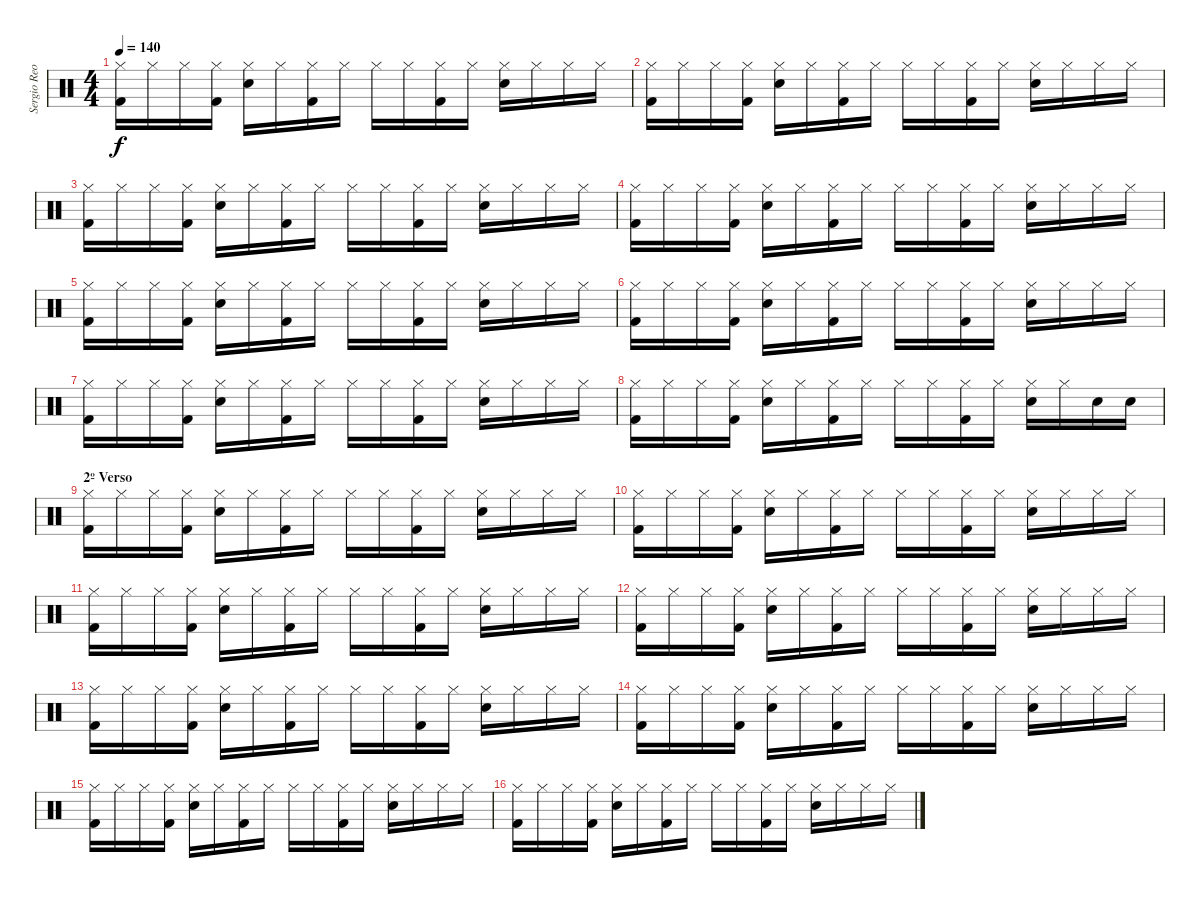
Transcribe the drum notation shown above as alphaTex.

\track ("Sergio Reoli" "Sergio Reo") {instrument percussion}
\staff {score}
\articulation defaults
\ts (4 4)
\tempo 140
\clef neutral
\ks c
("Hi-Hat (closed)" "Kick (hit) 2").16{dy f} "Hi-Hat (closed)".16 "Hi-Hat (closed)".16 ("Hi-Hat (closed)" "Kick (hit) 2").16 ("Hi-Hat (closed)" "Electric Snare (hit)").16 "Hi-Hat (closed)".16 ("Hi-Hat (closed)" "Kick (hit) 2").16 "Hi-Hat (closed)".16 "Hi-Hat (closed)".16 "Hi-Hat (closed)".16 ("Hi-Hat (closed)" "Kick (hit) 2").16 "Hi-Hat (closed)".16 ("Hi-Hat (closed)" "Electric Snare (hit)").16 "Hi-Hat (closed)".16 "Hi-Hat (closed)".16 "Hi-Hat (closed)".16 |
("Hi-Hat (closed)" "Kick (hit) 2").16 "Hi-Hat (closed)".16 "Hi-Hat (closed)".16 ("Hi-Hat (closed)" "Kick (hit) 2").16 ("Hi-Hat (closed)" "Electric Snare (hit)").16 "Hi-Hat (closed)".16 ("Hi-Hat (closed)" "Kick (hit) 2").16 "Hi-Hat (closed)".16 "Hi-Hat (closed)".16 "Hi-Hat (closed)".16 ("Hi-Hat (closed)" "Kick (hit) 2").16 "Hi-Hat (closed)".16 ("Hi-Hat (closed)" "Electric Snare (hit)").16 "Hi-Hat (closed)".16 "Hi-Hat (closed)".16 "Hi-Hat (closed)".16 |
("Hi-Hat (closed)" "Kick (hit) 2").16 "Hi-Hat (closed)".16 "Hi-Hat (closed)".16 ("Hi-Hat (closed)" "Kick (hit) 2").16 ("Hi-Hat (closed)" "Electric Snare (hit)").16 "Hi-Hat (closed)".16 ("Hi-Hat (closed)" "Kick (hit) 2").16 "Hi-Hat (closed)".16 "Hi-Hat (closed)".16 "Hi-Hat (closed)".16 ("Hi-Hat (closed)" "Kick (hit) 2").16 "Hi-Hat (closed)".16 ("Hi-Hat (closed)" "Electric Snare (hit)").16 "Hi-Hat (closed)".16 "Hi-Hat (closed)".16 "Hi-Hat (closed)".16 |
("Hi-Hat (closed)" "Kick (hit) 2").16 "Hi-Hat (closed)".16 "Hi-Hat (closed)".16 ("Hi-Hat (closed)" "Kick (hit) 2").16 ("Hi-Hat (closed)" "Electric Snare (hit)").16 "Hi-Hat (closed)".16 ("Hi-Hat (closed)" "Kick (hit) 2").16 "Hi-Hat (closed)".16 "Hi-Hat (closed)".16 "Hi-Hat (closed)".16 ("Hi-Hat (closed)" "Kick (hit) 2").16 "Hi-Hat (closed)".16 ("Hi-Hat (closed)" "Electric Snare (hit)").16 "Hi-Hat (closed)".16 "Hi-Hat (closed)".16 "Hi-Hat (closed)".16 |
("Hi-Hat (closed)" "Kick (hit) 2").16 "Hi-Hat (closed)".16 "Hi-Hat (closed)".16 ("Hi-Hat (closed)" "Kick (hit) 2").16 ("Hi-Hat (closed)" "Electric Snare (hit)").16 "Hi-Hat (closed)".16 ("Hi-Hat (closed)" "Kick (hit) 2").16 "Hi-Hat (closed)".16 "Hi-Hat (closed)".16 "Hi-Hat (closed)".16 ("Hi-Hat (closed)" "Kick (hit) 2").16 "Hi-Hat (closed)".16 ("Hi-Hat (closed)" "Electric Snare (hit)").16 "Hi-Hat (closed)".16 "Hi-Hat (closed)".16 "Hi-Hat (closed)".16 |
("Hi-Hat (closed)" "Kick (hit) 2").16 "Hi-Hat (closed)".16 "Hi-Hat (closed)".16 ("Hi-Hat (closed)" "Kick (hit) 2").16 ("Hi-Hat (closed)" "Electric Snare (hit)").16 "Hi-Hat (closed)".16 ("Hi-Hat (closed)" "Kick (hit) 2").16 "Hi-Hat (closed)".16 "Hi-Hat (closed)".16 "Hi-Hat (closed)".16 ("Hi-Hat (closed)" "Kick (hit) 2").16 "Hi-Hat (closed)".16 ("Hi-Hat (closed)" "Electric Snare (hit)").16 "Hi-Hat (closed)".16 "Hi-Hat (closed)".16 "Hi-Hat (closed)".16 |
("Hi-Hat (closed)" "Kick (hit) 2").16 "Hi-Hat (closed)".16 "Hi-Hat (closed)".16 ("Hi-Hat (closed)" "Kick (hit) 2").16 ("Hi-Hat (closed)" "Electric Snare (hit)").16 "Hi-Hat (closed)".16 ("Hi-Hat (closed)" "Kick (hit) 2").16 "Hi-Hat (closed)".16 "Hi-Hat (closed)".16 "Hi-Hat (closed)".16 ("Hi-Hat (closed)" "Kick (hit) 2").16 "Hi-Hat (closed)".16 ("Hi-Hat (closed)" "Electric Snare (hit)").16 "Hi-Hat (closed)".16 "Hi-Hat (closed)".16 "Hi-Hat (closed)".16 |
("Hi-Hat (closed)" "Kick (hit) 2").16 "Hi-Hat (closed)".16 "Hi-Hat (closed)".16 ("Hi-Hat (closed)" "Kick (hit) 2").16 ("Hi-Hat (closed)" "Electric Snare (hit)").16 "Hi-Hat (closed)".16 ("Hi-Hat (closed)" "Kick (hit) 2").16 "Hi-Hat (closed)".16 "Hi-Hat (closed)".16 "Hi-Hat (closed)".16 ("Hi-Hat (closed)" "Kick (hit) 2").16 "Hi-Hat (closed)".16 ("Hi-Hat (closed)" "Electric Snare (hit)").16 "Hi-Hat (closed)".16 "Electric Snare (hit)".16 "Electric Snare (hit)".16 |
\section ("" "2º Verso")
("Hi-Hat (closed)" "Kick (hit) 2").16 "Hi-Hat (closed)".16 "Hi-Hat (closed)".16 ("Hi-Hat (closed)" "Kick (hit) 2").16 ("Hi-Hat (closed)" "Electric Snare (hit)").16 "Hi-Hat (closed)".16 ("Hi-Hat (closed)" "Kick (hit) 2").16 "Hi-Hat (closed)".16 "Hi-Hat (closed)".16 "Hi-Hat (closed)".16 ("Hi-Hat (closed)" "Kick (hit) 2").16 "Hi-Hat (closed)".16 ("Hi-Hat (closed)" "Electric Snare (hit)").16 "Hi-Hat (closed)".16 "Hi-Hat (closed)".16 "Hi-Hat (closed)".16 |
("Hi-Hat (closed)" "Kick (hit) 2").16 "Hi-Hat (closed)".16 "Hi-Hat (closed)".16 ("Hi-Hat (closed)" "Kick (hit) 2").16 ("Hi-Hat (closed)" "Electric Snare (hit)").16 "Hi-Hat (closed)".16 ("Hi-Hat (closed)" "Kick (hit) 2").16 "Hi-Hat (closed)".16 "Hi-Hat (closed)".16 "Hi-Hat (closed)".16 ("Hi-Hat (closed)" "Kick (hit) 2").16 "Hi-Hat (closed)".16 ("Hi-Hat (closed)" "Electric Snare (hit)").16 "Hi-Hat (closed)".16 "Hi-Hat (closed)".16 "Hi-Hat (closed)".16 |
("Hi-Hat (closed)" "Kick (hit) 2").16 "Hi-Hat (closed)".16 "Hi-Hat (closed)".16 ("Hi-Hat (closed)" "Kick (hit) 2").16 ("Hi-Hat (closed)" "Electric Snare (hit)").16 "Hi-Hat (closed)".16 ("Hi-Hat (closed)" "Kick (hit) 2").16 "Hi-Hat (closed)".16 "Hi-Hat (closed)".16 "Hi-Hat (closed)".16 ("Hi-Hat (closed)" "Kick (hit) 2").16 "Hi-Hat (closed)".16 ("Hi-Hat (closed)" "Electric Snare (hit)").16 "Hi-Hat (closed)".16 "Hi-Hat (closed)".16 "Hi-Hat (closed)".16 |
("Hi-Hat (closed)" "Kick (hit) 2").16 "Hi-Hat (closed)".16 "Hi-Hat (closed)".16 ("Hi-Hat (closed)" "Kick (hit) 2").16 ("Hi-Hat (closed)" "Electric Snare (hit)").16 "Hi-Hat (closed)".16 ("Hi-Hat (closed)" "Kick (hit) 2").16 "Hi-Hat (closed)".16 "Hi-Hat (closed)".16 "Hi-Hat (closed)".16 ("Hi-Hat (closed)" "Kick (hit) 2").16 "Hi-Hat (closed)".16 ("Hi-Hat (closed)" "Electric Snare (hit)").16 "Hi-Hat (closed)".16 "Hi-Hat (closed)".16 "Hi-Hat (closed)".16 |
("Hi-Hat (closed)" "Kick (hit) 2").16 "Hi-Hat (closed)".16 "Hi-Hat (closed)".16 ("Hi-Hat (closed)" "Kick (hit) 2").16 ("Hi-Hat (closed)" "Electric Snare (hit)").16 "Hi-Hat (closed)".16 ("Hi-Hat (closed)" "Kick (hit) 2").16 "Hi-Hat (closed)".16 "Hi-Hat (closed)".16 "Hi-Hat (closed)".16 ("Hi-Hat (closed)" "Kick (hit) 2").16 "Hi-Hat (closed)".16 ("Hi-Hat (closed)" "Electric Snare (hit)").16 "Hi-Hat (closed)".16 "Hi-Hat (closed)".16 "Hi-Hat (closed)".16 |
("Hi-Hat (closed)" "Kick (hit) 2").16 "Hi-Hat (closed)".16 "Hi-Hat (closed)".16 ("Hi-Hat (closed)" "Kick (hit) 2").16 ("Hi-Hat (closed)" "Electric Snare (hit)").16 "Hi-Hat (closed)".16 ("Hi-Hat (closed)" "Kick (hit) 2").16 "Hi-Hat (closed)".16 "Hi-Hat (closed)".16 "Hi-Hat (closed)".16 ("Hi-Hat (closed)" "Kick (hit) 2").16 "Hi-Hat (closed)".16 ("Hi-Hat (closed)" "Electric Snare (hit)").16 "Hi-Hat (closed)".16 "Hi-Hat (closed)".16 "Hi-Hat (closed)".16 |
("Hi-Hat (closed)" "Kick (hit) 2").16 "Hi-Hat (closed)".16 "Hi-Hat (closed)".16 ("Hi-Hat (closed)" "Kick (hit) 2").16 ("Hi-Hat (closed)" "Electric Snare (hit)").16 "Hi-Hat (closed)".16 ("Hi-Hat (closed)" "Kick (hit) 2").16 "Hi-Hat (closed)".16 "Hi-Hat (closed)".16 "Hi-Hat (closed)".16 ("Hi-Hat (closed)" "Kick (hit) 2").16 "Hi-Hat (closed)".16 ("Hi-Hat (closed)" "Electric Snare (hit)").16 "Hi-Hat (closed)".16 "Hi-Hat (closed)".16 "Hi-Hat (closed)".16 |
("Hi-Hat (closed)" "Kick (hit) 2").16 "Hi-Hat (closed)".16 "Hi-Hat (closed)".16 ("Hi-Hat (closed)" "Kick (hit) 2").16 ("Hi-Hat (closed)" "Electric Snare (hit)").16 "Hi-Hat (closed)".16 ("Hi-Hat (closed)" "Kick (hit) 2").16 "Hi-Hat (closed)".16 "Hi-Hat (closed)".16 "Hi-Hat (closed)".16 ("Hi-Hat (closed)" "Kick (hit) 2").16 "Hi-Hat (closed)".16 ("Hi-Hat (closed)" "Electric Snare (hit)").16 "Hi-Hat (closed)".16 "Hi-Hat (closed)".16 "Hi-Hat (closed)".16
